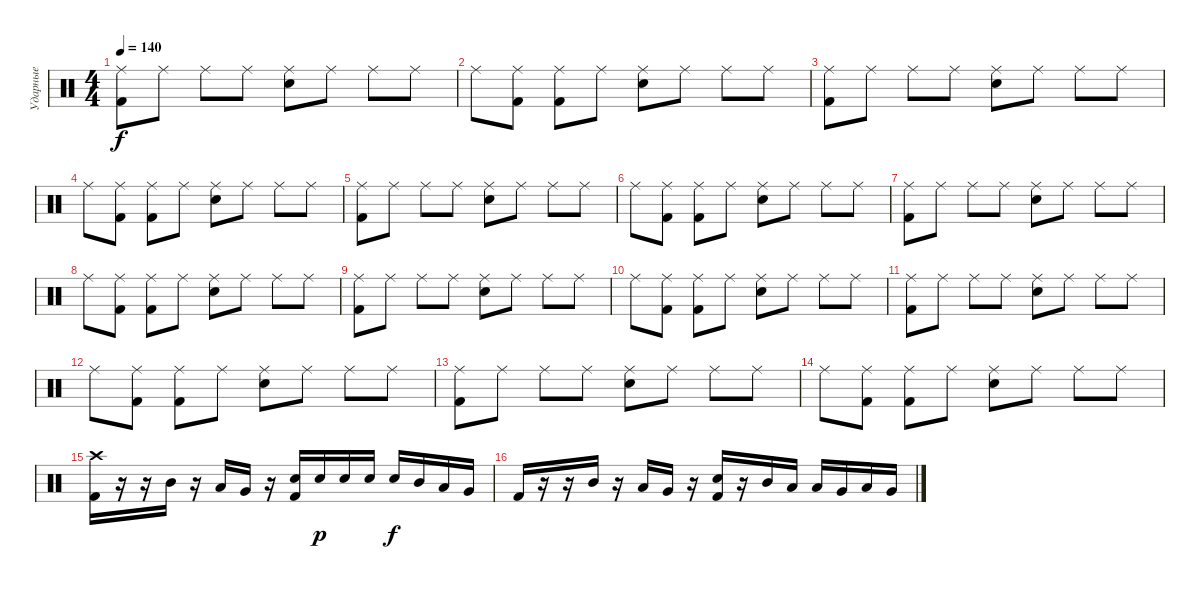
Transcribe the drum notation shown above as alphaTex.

\track ("Ударные" "Ударные") {instrument percussion}
\staff {score}
\articulation defaults
\ts (4 4)
\tempo 140
\clef neutral
\ks c
("Ride (middle)" "Kick (hit) 2").8{dy f} "Ride (middle)".8 "Ride (middle)".8 "Ride (middle)".8 ("Ride (middle)" "Snare (hit) 2").8 "Ride (middle)".8 "Ride (middle)".8 "Ride (middle)".8 |
"Ride (middle)".8 ("Ride (middle)" "Kick (hit) 2").8 ("Ride (middle)" "Kick (hit) 2").8 "Ride (middle)".8 ("Ride (middle)" "Snare (hit) 2").8 "Ride (middle)".8 "Ride (middle)".8 "Ride (middle)".8 |
("Ride (middle)" "Kick (hit) 2").8 "Ride (middle)".8 "Ride (middle)".8 "Ride (middle)".8 ("Ride (middle)" "Snare (hit) 2").8 "Ride (middle)".8 "Ride (middle)".8 "Ride (middle)".8 |
"Ride (middle)".8 ("Ride (middle)" "Kick (hit) 2").8 ("Ride (middle)" "Kick (hit) 2").8 "Ride (middle)".8 ("Ride (middle)" "Snare (hit) 2").8 "Ride (middle)".8 "Ride (middle)".8 "Ride (middle)".8 |
("Ride (middle)" "Kick (hit) 2").8 "Ride (middle)".8 "Ride (middle)".8 "Ride (middle)".8 ("Ride (middle)" "Snare (hit) 2").8 "Ride (middle)".8 "Ride (middle)".8 "Ride (middle)".8 |
"Ride (middle)".8 ("Ride (middle)" "Kick (hit) 2").8 ("Ride (middle)" "Kick (hit) 2").8 "Ride (middle)".8 ("Ride (middle)" "Snare (hit) 2").8 "Ride (middle)".8 "Ride (middle)".8 "Ride (middle)".8 |
("Ride (middle)" "Kick (hit) 2").8 "Ride (middle)".8 "Ride (middle)".8 "Ride (middle)".8 ("Ride (middle)" "Snare (hit) 2").8 "Ride (middle)".8 "Ride (middle)".8 "Ride (middle)".8 |
"Ride (middle)".8 ("Ride (middle)" "Kick (hit) 2").8 ("Ride (middle)" "Kick (hit) 2").8 "Ride (middle)".8 ("Ride (middle)" "Snare (hit) 2").8 "Ride (middle)".8 "Ride (middle)".8 "Ride (middle)".8 |
("Ride (middle)" "Kick (hit) 2").8 "Ride (middle)".8 "Ride (middle)".8 "Ride (middle)".8 ("Ride (middle)" "Snare (hit) 2").8 "Ride (middle)".8 "Ride (middle)".8 "Ride (middle)".8 |
"Ride (middle)".8 ("Ride (middle)" "Kick (hit) 2").8 ("Ride (middle)" "Kick (hit) 2").8 "Ride (middle)".8 ("Ride (middle)" "Snare (hit) 2").8 "Ride (middle)".8 "Ride (middle)".8 "Ride (middle)".8 |
("Ride (middle)" "Kick (hit) 2").8 "Ride (middle)".8 "Ride (middle)".8 "Ride (middle)".8 ("Ride (middle)" "Snare (hit) 2").8 "Ride (middle)".8 "Ride (middle)".8 "Ride (middle)".8 |
"Ride (middle)".8 ("Ride (middle)" "Kick (hit) 2").8 ("Ride (middle)" "Kick (hit) 2").8 "Ride (middle)".8 ("Ride (middle)" "Snare (hit) 2").8 "Ride (middle)".8 "Ride (middle)".8 "Ride (middle)".8 |
("Ride (middle)" "Kick (hit) 2").8 "Ride (middle)".8 "Ride (middle)".8 "Ride (middle)".8 ("Ride (middle)" "Snare (hit) 2").8 "Ride (middle)".8 "Ride (middle)".8 "Ride (middle)".8 |
"Ride (middle)".8 ("Ride (middle)" "Kick (hit) 2").8 ("Ride (middle)" "Kick (hit) 2").8 "Ride (middle)".8 ("Ride (middle)" "Snare (hit) 2").8 "Ride (middle)".8 "Ride (middle)".8 "Ride (middle)".8 |
("Crash high (hit)" "Kick (hit) 2").16 r.16 r.16 "Mid Tom (hit)".16 r.16 "Low Tom (hit)".16 "Very Low Tom (hit)".16 r.16 ("Snare (hit) 2" "Kick (hit) 2").16 "Snare (hit) 2".16{dy p} "Snare (hit) 2".16 "Snare (hit) 2".16 "Snare (hit) 2".16{dy f} "Mid Tom (hit)".16 "Low Tom (hit)".16 "Very Low Tom (hit)".16 |
"Kick (hit) 2".16 r.16 r.16 "Mid Tom (hit)".16 r.16 "Low Tom (hit)".16 "Very Low Tom (hit)".16 r.16 ("Snare (hit) 2" "Kick (hit) 2").16 r.16 "Mid Tom (hit)".16 "Low Tom (hit)".16 "Low Tom (hit)".16 "Very Low Tom (hit)".16 "Low Floor Tom (hit)".16 "Very Low Tom (hit)".16
